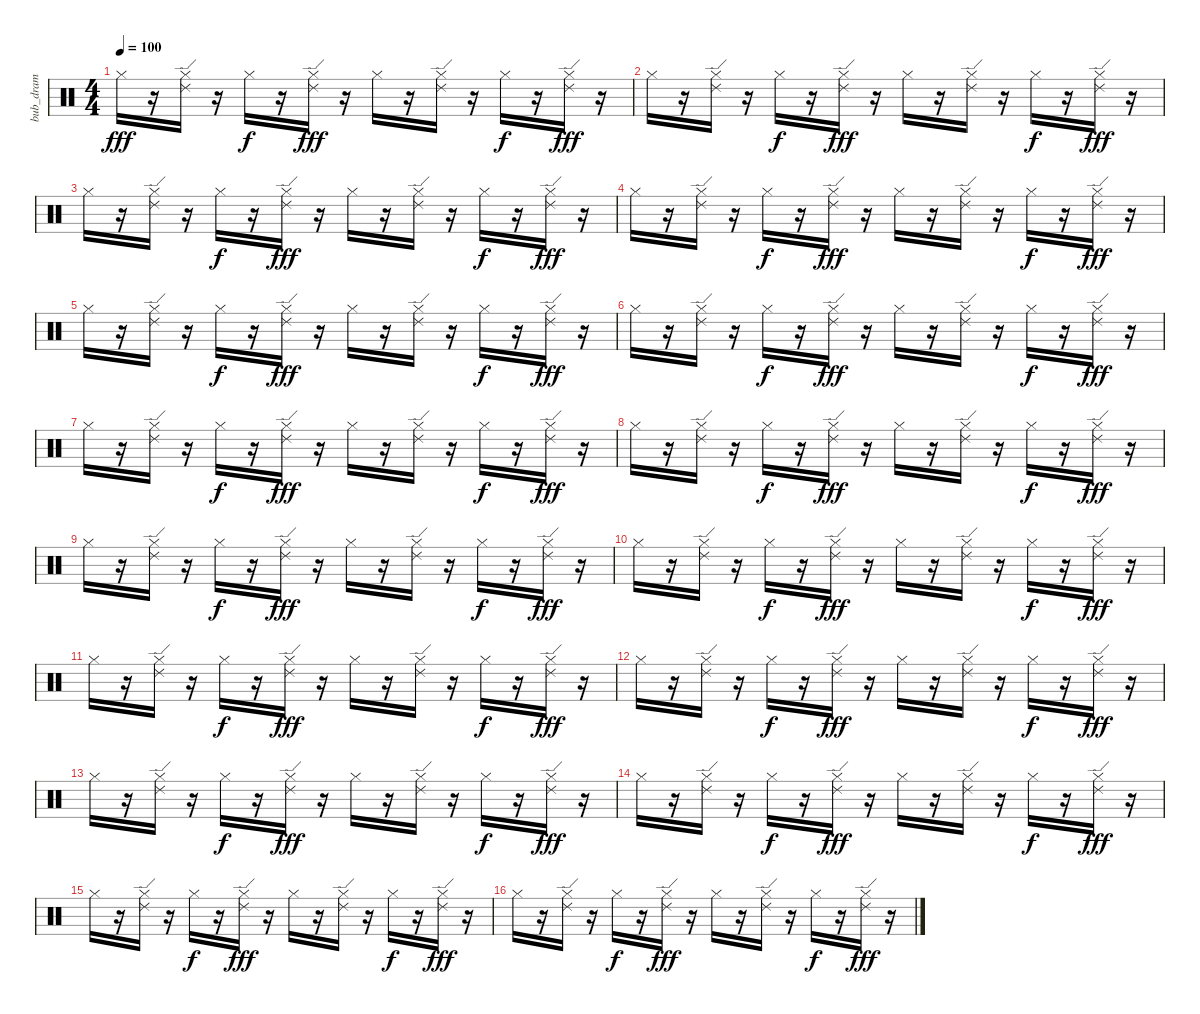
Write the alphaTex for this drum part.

\track ("bub_dram" "bub_dram") {instrument percussion}
\staff {score}
\articulation defaults
\ts (4 4)
\tempo 100
\clef neutral
\ks c "Hi-Hat (closed)".16{dy fff}
r.16 ("Ride (edge) 2" "Hi-Hat (closed)").16 r.16 "Hi-Hat (closed)".16{dy f} r.16 ("Ride (edge) 2" "Hi-Hat (closed)").16{dy fff} r.16 "Hi-Hat (closed)".16 r.16 ("Ride (edge) 2" "Hi-Hat (closed)").16 r.16 "Hi-Hat (closed)".16{dy f} r.16 ("Ride (edge) 2" "Hi-Hat (closed)").16{dy fff} r.16 |
"Hi-Hat (closed)".16 r.16 ("Ride (edge) 2" "Hi-Hat (closed)").16 r.16 "Hi-Hat (closed)".16{dy f} r.16 ("Ride (edge) 2" "Hi-Hat (closed)").16{dy fff} r.16 "Hi-Hat (closed)".16 r.16 ("Ride (edge) 2" "Hi-Hat (closed)").16 r.16 "Hi-Hat (closed)".16{dy f} r.16 ("Ride (edge) 2" "Hi-Hat (closed)").16{dy fff} r.16 |
"Hi-Hat (closed)".16 r.16 ("Hi-Hat (closed)" "Ride (edge) 2").16 r.16 "Hi-Hat (closed)".16{dy f} r.16 ("Hi-Hat (closed)" "Ride (edge) 2").16{dy fff} r.16 "Hi-Hat (closed)".16 r.16 ("Hi-Hat (closed)" "Ride (edge) 2").16 r.16 "Hi-Hat (closed)".16{dy f} r.16 ("Hi-Hat (closed)" "Ride (edge) 2").16{dy fff} r.16 |
"Hi-Hat (closed)".16 r.16 ("Hi-Hat (closed)" "Ride (edge) 2").16 r.16 "Hi-Hat (closed)".16{dy f} r.16 ("Hi-Hat (closed)" "Ride (edge) 2").16{dy fff} r.16 "Hi-Hat (closed)".16 r.16 ("Hi-Hat (closed)" "Ride (edge) 2").16 r.16 "Hi-Hat (closed)".16{dy f} r.16 ("Hi-Hat (closed)" "Ride (edge) 2").16{dy fff} r.16 |
"Hi-Hat (closed)".16 r.16 ("Hi-Hat (closed)" "Ride (edge) 2").16 r.16 "Hi-Hat (closed)".16{dy f} r.16 ("Hi-Hat (closed)" "Ride (edge) 2").16{dy fff} r.16 "Hi-Hat (closed)".16 r.16 ("Hi-Hat (closed)" "Ride (edge) 2").16 r.16 "Hi-Hat (closed)".16{dy f} r.16 ("Hi-Hat (closed)" "Ride (edge) 2").16{dy fff} r.16 |
"Hi-Hat (closed)".16 r.16 ("Ride (edge) 2" "Hi-Hat (closed)").16 r.16 "Hi-Hat (closed)".16{dy f} r.16 ("Ride (edge) 2" "Hi-Hat (closed)").16{dy fff} r.16 "Hi-Hat (closed)".16 r.16 ("Ride (edge) 2" "Hi-Hat (closed)").16 r.16 "Hi-Hat (closed)".16{dy f} r.16 ("Ride (edge) 2" "Hi-Hat (closed)").16{dy fff} r.16 |
"Hi-Hat (closed)".16 r.16 ("Ride (edge) 2" "Hi-Hat (closed)").16 r.16 "Hi-Hat (closed)".16{dy f} r.16 ("Ride (edge) 2" "Hi-Hat (closed)").16{dy fff} r.16 "Hi-Hat (closed)".16 r.16 ("Ride (edge) 2" "Hi-Hat (closed)").16 r.16 "Hi-Hat (closed)".16{dy f} r.16 ("Ride (edge) 2" "Hi-Hat (closed)").16{dy fff} r.16 |
"Hi-Hat (closed)".16 r.16 ("Ride (edge) 2" "Hi-Hat (closed)").16 r.16 "Hi-Hat (closed)".16{dy f} r.16 ("Ride (edge) 2" "Hi-Hat (closed)").16{dy fff} r.16 "Hi-Hat (closed)".16 r.16 ("Ride (edge) 2" "Hi-Hat (closed)").16 r.16 "Hi-Hat (closed)".16{dy f} r.16 ("Ride (edge) 2" "Hi-Hat (closed)").16{dy fff} r.16 |
"Hi-Hat (closed)".16 r.16 ("Ride (edge) 2" "Hi-Hat (closed)").16 r.16 "Hi-Hat (closed)".16{dy f} r.16 ("Ride (edge) 2" "Hi-Hat (closed)").16{dy fff} r.16 "Hi-Hat (closed)".16 r.16 ("Ride (edge) 2" "Hi-Hat (closed)").16 r.16 "Hi-Hat (closed)".16{dy f} r.16 ("Ride (edge) 2" "Hi-Hat (closed)").16{dy fff} r.16 |
"Hi-Hat (closed)".16 r.16 ("Ride (edge) 2" "Hi-Hat (closed)").16 r.16 "Hi-Hat (closed)".16{dy f} r.16 ("Ride (edge) 2" "Hi-Hat (closed)").16{dy fff} r.16 "Hi-Hat (closed)".16 r.16 ("Ride (edge) 2" "Hi-Hat (closed)").16 r.16 "Hi-Hat (closed)".16{dy f} r.16 ("Ride (edge) 2" "Hi-Hat (closed)").16{dy fff} r.16 |
"Hi-Hat (closed)".16 r.16 ("Ride (edge) 2" "Hi-Hat (closed)").16 r.16 "Hi-Hat (closed)".16{dy f} r.16 ("Ride (edge) 2" "Hi-Hat (closed)").16{dy fff} r.16 "Hi-Hat (closed)".16 r.16 ("Ride (edge) 2" "Hi-Hat (closed)").16 r.16 "Hi-Hat (closed)".16{dy f} r.16 ("Ride (edge) 2" "Hi-Hat (closed)").16{dy fff} r.16 |
"Hi-Hat (closed)".16 r.16 ("Hi-Hat (closed)" "Ride (edge) 2").16 r.16 "Hi-Hat (closed)".16{dy f} r.16 ("Hi-Hat (closed)" "Ride (edge) 2").16{dy fff} r.16 "Hi-Hat (closed)".16 r.16 ("Hi-Hat (closed)" "Ride (edge) 2").16 r.16 "Hi-Hat (closed)".16{dy f} r.16 ("Hi-Hat (closed)" "Ride (edge) 2").16{dy fff} r.16 |
"Hi-Hat (closed)".16 r.16 ("Hi-Hat (closed)" "Ride (edge) 2").16 r.16 "Hi-Hat (closed)".16{dy f} r.16 ("Hi-Hat (closed)" "Ride (edge) 2").16{dy fff} r.16 "Hi-Hat (closed)".16 r.16 ("Hi-Hat (closed)" "Ride (edge) 2").16 r.16 "Hi-Hat (closed)".16{dy f} r.16 ("Hi-Hat (closed)" "Ride (edge) 2").16{dy fff} r.16 |
"Hi-Hat (closed)".16 r.16 ("Hi-Hat (closed)" "Ride (edge) 2").16 r.16 "Hi-Hat (closed)".16{dy f} r.16 ("Hi-Hat (closed)" "Ride (edge) 2").16{dy fff} r.16 "Hi-Hat (closed)".16 r.16 ("Hi-Hat (closed)" "Ride (edge) 2").16 r.16 "Hi-Hat (closed)".16{dy f} r.16 ("Hi-Hat (closed)" "Ride (edge) 2").16{dy fff} r.16 |
"Hi-Hat (closed)".16 r.16 ("Ride (edge) 2" "Hi-Hat (closed)").16 r.16 "Hi-Hat (closed)".16{dy f} r.16 ("Ride (edge) 2" "Hi-Hat (closed)").16{dy fff} r.16 "Hi-Hat (closed)".16 r.16 ("Ride (edge) 2" "Hi-Hat (closed)").16 r.16 "Hi-Hat (closed)".16{dy f} r.16 ("Ride (edge) 2" "Hi-Hat (closed)").16{dy fff} r.16 |
"Hi-Hat (closed)".16 r.16 ("Ride (edge) 2" "Hi-Hat (closed)").16 r.16 "Hi-Hat (closed)".16{dy f} r.16 ("Ride (edge) 2" "Hi-Hat (closed)").16{dy fff} r.16 "Hi-Hat (closed)".16 r.16 ("Ride (edge) 2" "Hi-Hat (closed)").16 r.16 "Hi-Hat (closed)".16{dy f} r.16 ("Ride (edge) 2" "Hi-Hat (closed)").16{dy fff} r.16
